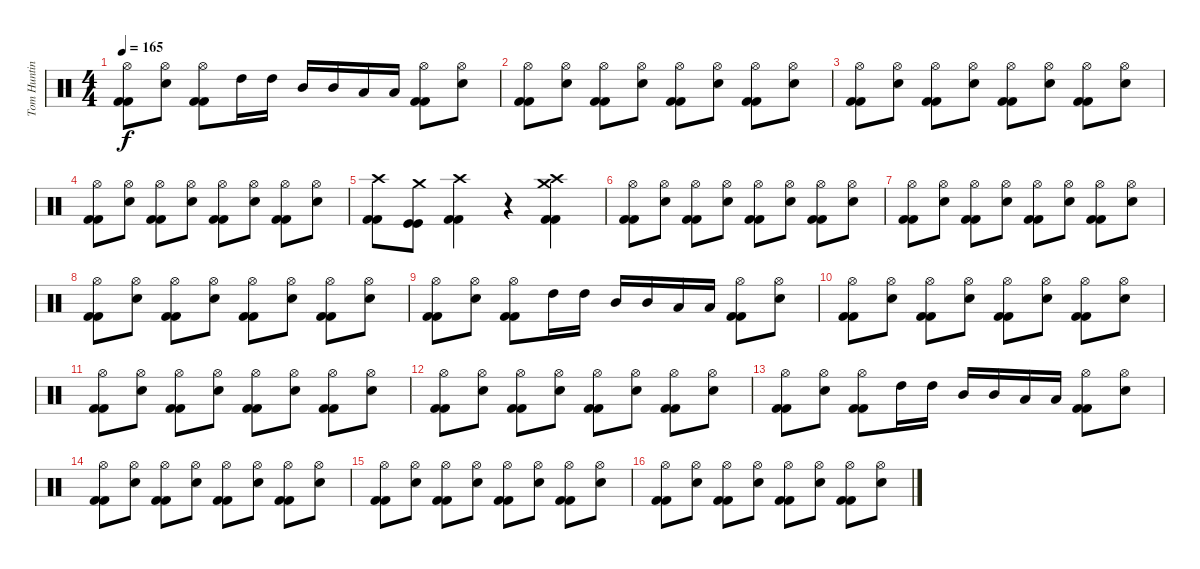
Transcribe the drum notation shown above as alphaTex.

\track ("Tom Hunting" "Tom Huntin") {instrument percussion}
\staff {score}
\articulation defaults
\ts (4 4)
\tempo 165
\clef neutral
\ks c
("Kick (hit) 2" "Kick (hit) 2" "Hi-Hat (open)").8{dy f} ("Electric Snare (hit)" "Hi-Hat (open)").8 ("Kick (hit) 2" "Kick (hit) 2" "Hi-Hat (open)").8 "High Tom (hit)".16 "High Tom (hit)".16 "Mid Tom (hit)".16 "Mid Tom (hit)".16 "Low Tom (hit)".16 "Low Tom (hit)".16 ("Kick (hit) 2" "Kick (hit) 2" "Hi-Hat (open)").8 ("Electric Snare (hit)" "Hi-Hat (open)").8 |
("Kick (hit) 2" "Kick (hit) 2" "Hi-Hat (open)").8 ("Electric Snare (hit)" "Hi-Hat (open)").8 ("Kick (hit) 2" "Kick (hit) 2" "Hi-Hat (open)").8 ("Electric Snare (hit)" "Hi-Hat (open)").8 ("Kick (hit) 2" "Kick (hit) 2" "Hi-Hat (open)").8 ("Electric Snare (hit)" "Hi-Hat (open)").8 ("Kick (hit) 2" "Kick (hit) 2" "Hi-Hat (open)").8 ("Electric Snare (hit)" "Hi-Hat (open)").8 |
("Kick (hit) 2" "Kick (hit) 2" "Hi-Hat (open)").8 ("Electric Snare (hit)" "Hi-Hat (open)").8 ("Kick (hit) 2" "Kick (hit) 2" "Hi-Hat (open)").8 ("Electric Snare (hit)" "Hi-Hat (open)").8 ("Kick (hit) 2" "Kick (hit) 2" "Hi-Hat (open)").8 ("Electric Snare (hit)" "Hi-Hat (open)").8 ("Kick (hit) 2" "Kick (hit) 2" "Hi-Hat (open)").8 ("Electric Snare (hit)" "Hi-Hat (open)").8 |
("Kick (hit) 2" "Kick (hit) 2" "Hi-Hat (open)").8 ("Electric Snare (hit)" "Hi-Hat (open)").8 ("Kick (hit) 2" "Kick (hit) 2" "Hi-Hat (open)").8 ("Electric Snare (hit)" "Hi-Hat (open)").8 ("Kick (hit) 2" "Kick (hit) 2" "Hi-Hat (open)").8 ("Electric Snare (hit)" "Hi-Hat (open)").8 ("Kick (hit) 2" "Kick (hit) 2" "Hi-Hat (open)").8 ("Electric Snare (hit)" "Hi-Hat (open)").8 |
("Kick (hit) 2" "Kick (hit) 2" "Crash high (hit)").8 ("Kick (hit)" "Kick (hit)" "Crash medium (hit)").8 ("Kick (hit) 2" "Kick (hit) 2" "Crash high (hit)").4 r.4 ("Kick (hit) 2" "Kick (hit) 2" "Crash high (hit)" "Crash medium (hit)").4 |
("Kick (hit) 2" "Kick (hit) 2" "Hi-Hat (open)").8 ("Electric Snare (hit)" "Hi-Hat (open)").8 ("Kick (hit) 2" "Kick (hit) 2" "Hi-Hat (open)").8 ("Electric Snare (hit)" "Hi-Hat (open)").8 ("Kick (hit) 2" "Kick (hit) 2" "Hi-Hat (open)").8 ("Electric Snare (hit)" "Hi-Hat (open)").8 ("Kick (hit) 2" "Kick (hit) 2" "Hi-Hat (open)").8 ("Electric Snare (hit)" "Hi-Hat (open)").8 |
("Kick (hit) 2" "Kick (hit) 2" "Hi-Hat (open)").8 ("Electric Snare (hit)" "Hi-Hat (open)").8 ("Kick (hit) 2" "Kick (hit) 2" "Hi-Hat (open)").8 ("Electric Snare (hit)" "Hi-Hat (open)").8 ("Kick (hit) 2" "Kick (hit) 2" "Hi-Hat (open)").8 ("Electric Snare (hit)" "Hi-Hat (open)").8 ("Kick (hit) 2" "Kick (hit) 2" "Hi-Hat (open)").8 ("Electric Snare (hit)" "Hi-Hat (open)").8 |
("Kick (hit) 2" "Kick (hit) 2" "Hi-Hat (open)").8 ("Electric Snare (hit)" "Hi-Hat (open)").8 ("Kick (hit) 2" "Kick (hit) 2" "Hi-Hat (open)").8 ("Electric Snare (hit)" "Hi-Hat (open)").8 ("Kick (hit) 2" "Kick (hit) 2" "Hi-Hat (open)").8 ("Electric Snare (hit)" "Hi-Hat (open)").8 ("Kick (hit) 2" "Kick (hit) 2" "Hi-Hat (open)").8 ("Electric Snare (hit)" "Hi-Hat (open)").8 |
("Kick (hit) 2" "Kick (hit) 2" "Hi-Hat (open)").8 ("Electric Snare (hit)" "Hi-Hat (open)").8 ("Kick (hit) 2" "Kick (hit) 2" "Hi-Hat (open)").8 "High Tom (hit)".16 "High Tom (hit)".16 "Mid Tom (hit)".16 "Mid Tom (hit)".16 "Low Tom (hit)".16 "Low Tom (hit)".16 ("Kick (hit) 2" "Kick (hit) 2" "Hi-Hat (open)").8 ("Electric Snare (hit)" "Hi-Hat (open)").8 |
("Kick (hit) 2" "Kick (hit) 2" "Hi-Hat (open)").8 ("Electric Snare (hit)" "Hi-Hat (open)").8 ("Kick (hit) 2" "Kick (hit) 2" "Hi-Hat (open)").8 ("Electric Snare (hit)" "Hi-Hat (open)").8 ("Kick (hit) 2" "Kick (hit) 2" "Hi-Hat (open)").8 ("Electric Snare (hit)" "Hi-Hat (open)").8 ("Kick (hit) 2" "Kick (hit) 2" "Hi-Hat (open)").8 ("Electric Snare (hit)" "Hi-Hat (open)").8 |
("Kick (hit) 2" "Kick (hit) 2" "Hi-Hat (open)").8 ("Electric Snare (hit)" "Hi-Hat (open)").8 ("Kick (hit) 2" "Kick (hit) 2" "Hi-Hat (open)").8 ("Electric Snare (hit)" "Hi-Hat (open)").8 ("Kick (hit) 2" "Kick (hit) 2" "Hi-Hat (open)").8 ("Electric Snare (hit)" "Hi-Hat (open)").8 ("Kick (hit) 2" "Kick (hit) 2" "Hi-Hat (open)").8 ("Electric Snare (hit)" "Hi-Hat (open)").8 |
("Kick (hit) 2" "Kick (hit) 2" "Hi-Hat (open)").8 ("Electric Snare (hit)" "Hi-Hat (open)").8 ("Kick (hit) 2" "Kick (hit) 2" "Hi-Hat (open)").8 ("Electric Snare (hit)" "Hi-Hat (open)").8 ("Kick (hit) 2" "Kick (hit) 2" "Hi-Hat (open)").8 ("Electric Snare (hit)" "Hi-Hat (open)").8 ("Kick (hit) 2" "Kick (hit) 2" "Hi-Hat (open)").8 ("Electric Snare (hit)" "Hi-Hat (open)").8 |
("Kick (hit) 2" "Kick (hit) 2" "Hi-Hat (open)").8 ("Electric Snare (hit)" "Hi-Hat (open)").8 ("Kick (hit) 2" "Kick (hit) 2" "Hi-Hat (open)").8 "High Tom (hit)".16 "High Tom (hit)".16 "Mid Tom (hit)".16 "Mid Tom (hit)".16 "Low Tom (hit)".16 "Low Tom (hit)".16 ("Kick (hit) 2" "Kick (hit) 2" "Hi-Hat (open)").8 ("Electric Snare (hit)" "Hi-Hat (open)").8 |
("Kick (hit) 2" "Kick (hit) 2" "Hi-Hat (open)").8 ("Electric Snare (hit)" "Hi-Hat (open)").8 ("Kick (hit) 2" "Kick (hit) 2" "Hi-Hat (open)").8 ("Electric Snare (hit)" "Hi-Hat (open)").8 ("Kick (hit) 2" "Kick (hit) 2" "Hi-Hat (open)").8 ("Electric Snare (hit)" "Hi-Hat (open)").8 ("Kick (hit) 2" "Kick (hit) 2" "Hi-Hat (open)").8 ("Electric Snare (hit)" "Hi-Hat (open)").8 |
("Kick (hit) 2" "Kick (hit) 2" "Hi-Hat (open)").8 ("Electric Snare (hit)" "Hi-Hat (open)").8 ("Kick (hit) 2" "Kick (hit) 2" "Hi-Hat (open)").8 ("Electric Snare (hit)" "Hi-Hat (open)").8 ("Kick (hit) 2" "Kick (hit) 2" "Hi-Hat (open)").8 ("Electric Snare (hit)" "Hi-Hat (open)").8 ("Kick (hit) 2" "Kick (hit) 2" "Hi-Hat (open)").8 ("Electric Snare (hit)" "Hi-Hat (open)").8 |
("Kick (hit) 2" "Kick (hit) 2" "Hi-Hat (open)").8 ("Electric Snare (hit)" "Hi-Hat (open)").8 ("Kick (hit) 2" "Kick (hit) 2" "Hi-Hat (open)").8 ("Electric Snare (hit)" "Hi-Hat (open)").8 ("Kick (hit) 2" "Kick (hit) 2" "Hi-Hat (open)").8 ("Electric Snare (hit)" "Hi-Hat (open)").8 ("Kick (hit) 2" "Kick (hit) 2" "Hi-Hat (open)").8 ("Electric Snare (hit)" "Hi-Hat (open)").8
